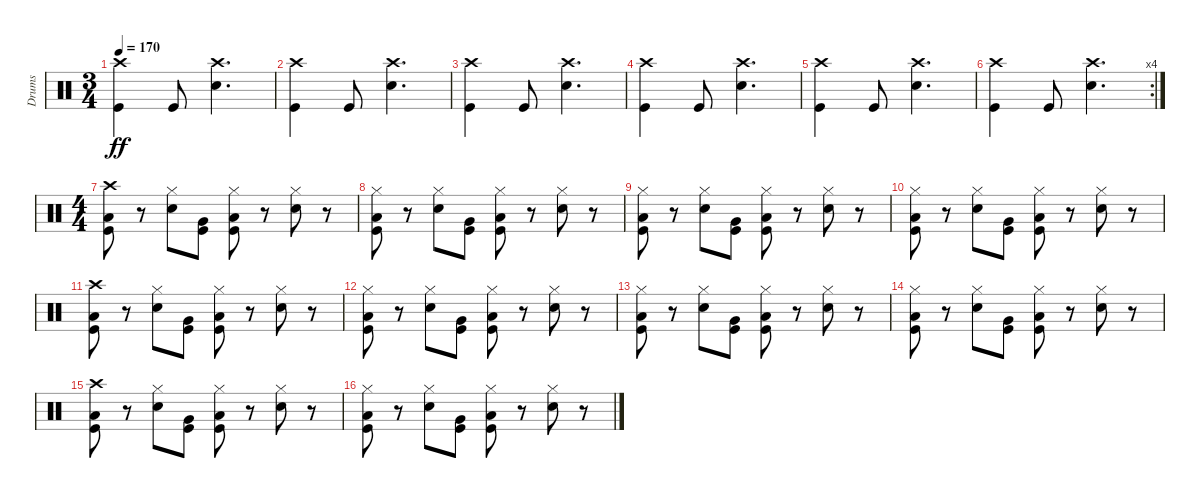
\track ("Drums" "Drums") {instrument percussion}
\staff {score}
\articulation defaults
\ts (3 4)
\tempo 170
\clef neutral
\ks c
("Crash high (hit)" "Kick (hit)").4{dy ff} "Kick (hit)".8 ("Crash high (hit)" "Snare (hit) 2").4{d} |
("Crash high (hit)" "Kick (hit)").4 "Kick (hit)".8 ("Crash high (hit)" "Snare (hit) 2").4{d} |
("Crash high (hit)" "Kick (hit)").4 "Kick (hit)".8 ("Crash high (hit)" "Snare (hit) 2").4{d} |
("Crash high (hit)" "Kick (hit)").4 "Kick (hit)".8 ("Crash high (hit)" "Snare (hit) 2").4{d} |
("Crash high (hit)" "Kick (hit)").4 "Kick (hit)".8 ("Crash high (hit)" "Snare (hit) 2").4{d} |
\rc 4
("Crash high (hit)" "Kick (hit)").4 "Kick (hit)".8 ("Crash high (hit)" "Snare (hit) 2").4{d} |
\ts (4 4)
("Crash high (hit)" "Low Floor Tom (hit)" "Kick (hit)").8 r.8 ("Hi-Hat (closed)" "Snare (hit) 2").8 ("Very Low Tom (hit)" "Kick (hit)").8 ("Hi-Hat (closed)" "Low Floor Tom (hit)" "Kick (hit)").8 r.8 ("Hi-Hat (closed)" "Snare (hit) 2").8 r.8 |
("Hi-Hat (closed)" "Low Floor Tom (hit)" "Kick (hit)").8 r.8 ("Hi-Hat (closed)" "Snare (hit) 2").8 ("Very Low Tom (hit)" "Kick (hit)").8 ("Hi-Hat (closed)" "Low Floor Tom (hit)" "Kick (hit)").8 r.8 ("Hi-Hat (closed)" "Snare (hit) 2").8 r.8 |
("Hi-Hat (closed)" "Low Floor Tom (hit)" "Kick (hit)").8 r.8 ("Hi-Hat (closed)" "Snare (hit) 2").8 ("Very Low Tom (hit)" "Kick (hit)").8 ("Hi-Hat (closed)" "Low Floor Tom (hit)" "Kick (hit)").8 r.8 ("Hi-Hat (closed)" "Snare (hit) 2").8 r.8 |
("Hi-Hat (closed)" "Low Floor Tom (hit)" "Kick (hit)").8 r.8 ("Hi-Hat (closed)" "Snare (hit) 2").8 ("Very Low Tom (hit)" "Kick (hit)").8 ("Hi-Hat (closed)" "Low Floor Tom (hit)" "Kick (hit)").8 r.8 ("Hi-Hat (closed)" "Snare (hit) 2").8 r.8 |
("Crash high (hit)" "Low Floor Tom (hit)" "Kick (hit)").8 r.8 ("Hi-Hat (closed)" "Snare (hit) 2").8 ("Very Low Tom (hit)" "Kick (hit)").8 ("Hi-Hat (closed)" "Low Floor Tom (hit)" "Kick (hit)").8 r.8 ("Hi-Hat (closed)" "Snare (hit) 2").8 r.8 |
("Hi-Hat (closed)" "Low Floor Tom (hit)" "Kick (hit)").8 r.8 ("Hi-Hat (closed)" "Snare (hit) 2").8 ("Very Low Tom (hit)" "Kick (hit)").8 ("Hi-Hat (closed)" "Low Floor Tom (hit)" "Kick (hit)").8 r.8 ("Hi-Hat (closed)" "Snare (hit) 2").8 r.8 |
("Hi-Hat (closed)" "Low Floor Tom (hit)" "Kick (hit)").8 r.8 ("Hi-Hat (closed)" "Snare (hit) 2").8 ("Very Low Tom (hit)" "Kick (hit)").8 ("Hi-Hat (closed)" "Low Floor Tom (hit)" "Kick (hit)").8 r.8 ("Hi-Hat (closed)" "Snare (hit) 2").8 r.8 |
("Hi-Hat (closed)" "Low Floor Tom (hit)" "Kick (hit)").8 r.8 ("Hi-Hat (closed)" "Snare (hit) 2").8 ("Very Low Tom (hit)" "Kick (hit)").8 ("Hi-Hat (closed)" "Low Floor Tom (hit)" "Kick (hit)").8 r.8 ("Hi-Hat (closed)" "Snare (hit) 2").8 r.8 |
("Crash high (hit)" "Low Floor Tom (hit)" "Kick (hit)").8 r.8 ("Hi-Hat (closed)" "Snare (hit) 2").8 ("Very Low Tom (hit)" "Kick (hit)").8 ("Hi-Hat (closed)" "Low Floor Tom (hit)" "Kick (hit)").8 r.8 ("Hi-Hat (closed)" "Snare (hit) 2").8 r.8 |
("Hi-Hat (closed)" "Low Floor Tom (hit)" "Kick (hit)").8 r.8 ("Hi-Hat (closed)" "Snare (hit) 2").8 ("Very Low Tom (hit)" "Kick (hit)").8 ("Hi-Hat (closed)" "Low Floor Tom (hit)" "Kick (hit)").8 r.8 ("Hi-Hat (closed)" "Snare (hit) 2").8 r.8
